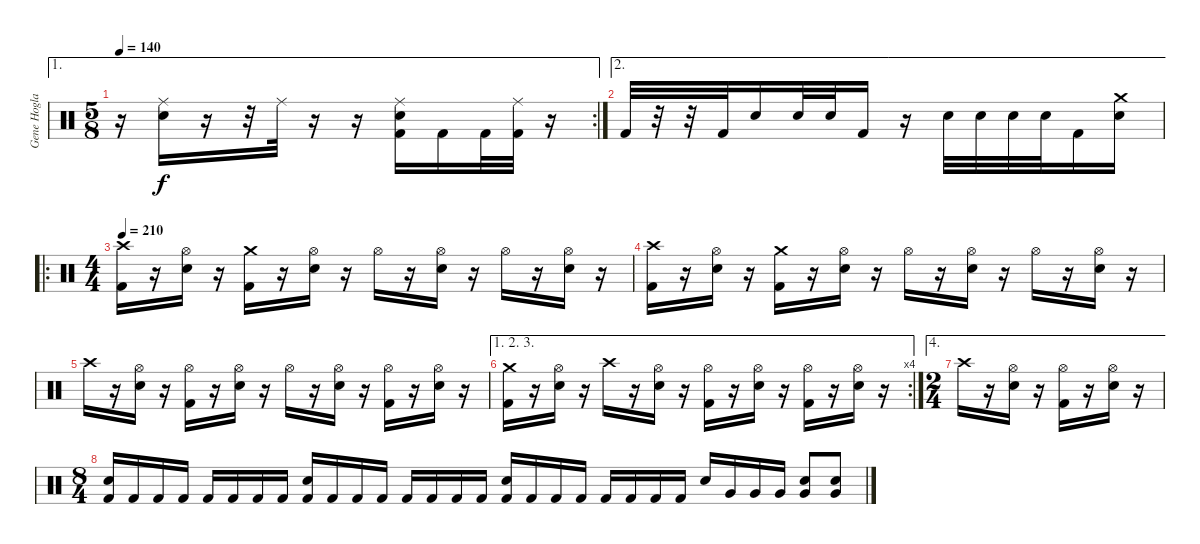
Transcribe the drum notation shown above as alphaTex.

\track ("Gene Hoglan" "Gene Hogla") {instrument percussion}
\staff {score}
\articulation defaults
\ae 1
\rc 2
\ts (5 8)
\tempo 140
\clef neutral
\ks c
r.16{dy f} ("Ride (middle)" "Electric Snare (hit)").16 r.16 r.32 "Ride (middle)".32 r.16 r.16 ("Ride (middle)" "Electric Snare (hit)" "Kick (hit) 2").16 "Kick (hit) 2".16 "Kick (hit) 2".32 ("Ride (middle)" "Kick (hit) 2").32 r.16 |
\ae 2 "Kick (hit) 2".32
r.32 r.32 "Kick (hit) 2".32 "Electric Snare (hit)".16 "Electric Snare (hit)".32 "Electric Snare (hit)".32 "Kick (hit) 2".16 r.16 "Electric Snare (hit)".32 "Electric Snare (hit)".32 "Electric Snare (hit)".32 "Electric Snare (hit)".32 "Kick (hit) 2".16 ("Crash medium (hit)" "Electric Snare (hit)").16 |
\ro
\ts (4 4)
\tempo 210
("Crash high (hit)" "Kick (hit) 2").16 r.16 ("Hi-Hat (open)" "Electric Snare (hit)").16 r.16 ("Crash medium (hit)" "Kick (hit) 2").16 r.16 ("Hi-Hat (open)" "Electric Snare (hit)").16 r.16 "Hi-Hat (open)".16 r.16 ("Hi-Hat (open)" "Electric Snare (hit)").16 r.16 "Hi-Hat (open)".16 r.16 ("Hi-Hat (open)" "Electric Snare (hit)").16 r.16 |
("Crash high (hit)" "Kick (hit) 2").16 r.16 ("Hi-Hat (open)" "Electric Snare (hit)").16 r.16 ("Crash medium (hit)" "Kick (hit) 2").16 r.16 ("Hi-Hat (open)" "Electric Snare (hit)").16 r.16 "Hi-Hat (open)".16 r.16 ("Hi-Hat (open)" "Electric Snare (hit)").16 r.16 "Hi-Hat (open)".16 r.16 ("Hi-Hat (open)" "Electric Snare (hit)").16 r.16 |
"Crash high (hit)".16 r.16 ("Hi-Hat (open)" "Electric Snare (hit)").16 r.16 ("Hi-Hat (open)" "Kick (hit) 2").16 r.16 ("Hi-Hat (open)" "Electric Snare (hit)").16 r.16 "Hi-Hat (open)".16 r.16 ("Hi-Hat (open)" "Electric Snare (hit)").16 r.16 ("Hi-Hat (open)" "Kick (hit) 2").16 r.16 ("Hi-Hat (open)" "Electric Snare (hit)").16 r.16 |
\ae (1 2 3)
\rc 4
("Crash medium (hit)" "Kick (hit) 2").16 r.16 ("Hi-Hat (open)" "Electric Snare (hit)").16 r.16 "Crash high (hit)".16 r.16 ("Hi-Hat (open)" "Electric Snare (hit)").16 r.16 ("Hi-Hat (open)" "Kick (hit) 2").16 r.16 ("Hi-Hat (open)" "Electric Snare (hit)").16 r.16 ("Hi-Hat (open)" "Kick (hit) 2").16 r.16 ("Hi-Hat (open)" "Electric Snare (hit)").16 r.16 |
\ae 4
\ts (2 4)
"Crash high (hit)".16 r.16 ("Hi-Hat (open)" "Electric Snare (hit)").16 r.16 ("Hi-Hat (open)" "Kick (hit) 2").16 r.16 ("Hi-Hat (open)" "Electric Snare (hit)").16 r.16 |
\ts (8 4)
("Electric Snare (hit)" "Kick (hit) 2").16 "Kick (hit) 2".16 "Kick (hit) 2".16 "Kick (hit) 2".16 "Kick (hit) 2".16 "Kick (hit) 2".16 "Kick (hit) 2".16 "Kick (hit) 2".16 ("Electric Snare (hit)" "Kick (hit) 2").16 "Kick (hit) 2".16 "Kick (hit) 2".16 "Kick (hit) 2".16 "Kick (hit) 2".16 "Kick (hit) 2".16 "Kick (hit) 2".16 "Kick (hit) 2".16 ("Electric Snare (hit)" "Kick (hit) 2").16 "Kick (hit) 2".16 "Kick (hit) 2".16 "Kick (hit) 2".16 "Kick (hit) 2".16 "Kick (hit) 2".16 "Kick (hit) 2".16 "Kick (hit) 2".16 "Electric Snare (hit)".16 "Very Low Tom (hit)".16 "Very Low Tom (hit)".16 "Very Low Tom (hit)".16 ("Electric Snare (hit)" "Very Low Tom (hit)").8 ("Electric Snare (hit)" "Very Low Tom (hit)").8
